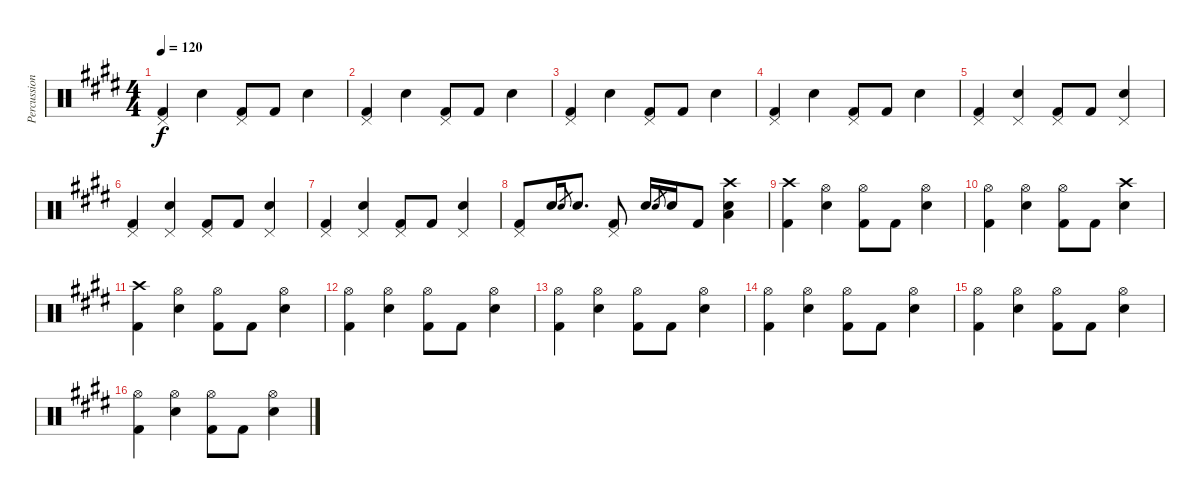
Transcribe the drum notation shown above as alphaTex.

\track ("Percussion" "Percussion") {instrument percussion}
\staff {score}
\articulation defaults
\ts (4 4)
\tempo 120
\clef neutral
\ks e
("Pedal Hi-Hat (hit)" "Kick (hit) 2").4{dy f} "Snare (hit) 2".4 ("Pedal Hi-Hat (hit)" "Kick (hit) 2").8 "Kick (hit) 2".8 "Snare (hit) 2".4 |
("Pedal Hi-Hat (hit)" "Kick (hit) 2").4 "Snare (hit) 2".4 ("Pedal Hi-Hat (hit)" "Kick (hit) 2").8 "Kick (hit) 2".8 "Snare (hit) 2".4 |
("Pedal Hi-Hat (hit)" "Kick (hit) 2").4 "Snare (hit) 2".4 ("Pedal Hi-Hat (hit)" "Kick (hit) 2").8 "Kick (hit) 2".8 "Snare (hit) 2".4 |
\ks c#minor
("Pedal Hi-Hat (hit)" "Kick (hit) 2").4 "Snare (hit) 2".4 ("Pedal Hi-Hat (hit)" "Kick (hit) 2").8 "Kick (hit) 2".8 "Snare (hit) 2".4 |
("Pedal Hi-Hat (hit)" "Kick (hit) 2").4 ("Pedal Hi-Hat (hit)" "Snare (hit) 2").4 ("Pedal Hi-Hat (hit)" "Kick (hit) 2").8 "Kick (hit) 2".8 ("Pedal Hi-Hat (hit)" "Snare (hit) 2").4 |
\ks e
("Pedal Hi-Hat (hit)" "Kick (hit) 2").4 ("Pedal Hi-Hat (hit)" "Snare (hit) 2").4 ("Pedal Hi-Hat (hit)" "Kick (hit) 2").8 "Kick (hit) 2".8 ("Pedal Hi-Hat (hit)" "Snare (hit) 2").4 |
\ks c#minor
("Pedal Hi-Hat (hit)" "Kick (hit) 2").4 ("Pedal Hi-Hat (hit)" "Snare (hit) 2").4 ("Pedal Hi-Hat (hit)" "Kick (hit) 2").8 "Kick (hit) 2".8 ("Pedal Hi-Hat (hit)" "Snare (hit) 2").4 |
("Pedal Hi-Hat (hit)" "Kick (hit) 2").8 "Snare (hit) 2".16 "Snare (hit) 2".8{gr} "Snare (hit) 2".8{d} ("Pedal Hi-Hat (hit)" "Kick (hit) 2").8 "Snare (hit) 2".16 "Snare (hit) 2".8{gr} "Snare (hit) 2".16 "Kick (hit) 2".8 ("Crash high (hit)" "Low Floor Tom (hit)" "Snare (hit) 2").4 |
("Crash high (hit)" "Kick (hit) 2").4 ("Hi-Hat (open)" "Snare (hit) 2").4 ("Hi-Hat (open)" "Kick (hit) 2").8 "Kick (hit) 2".8 ("Hi-Hat (open)" "Snare (hit) 2").4 |
\ks e
("Hi-Hat (open)" "Kick (hit) 2").4 ("Hi-Hat (open)" "Snare (hit) 2").4 ("Hi-Hat (open)" "Kick (hit) 2").8 "Kick (hit) 2".8 ("Crash high (hit)" "Snare (hit) 2").4 |
\ks c#minor
("Crash high (hit)" "Kick (hit) 2").4 ("Hi-Hat (open)" "Snare (hit) 2").4 ("Hi-Hat (open)" "Kick (hit) 2").8 "Kick (hit) 2".8 ("Hi-Hat (open)" "Snare (hit) 2").4 |
\ks e
("Hi-Hat (open)" "Kick (hit) 2").4 ("Hi-Hat (open)" "Snare (hit) 2").4 ("Hi-Hat (open)" "Kick (hit) 2").8 "Kick (hit) 2".8 ("Hi-Hat (open)" "Snare (hit) 2").4 |
\ks c#minor
("Hi-Hat (open)" "Kick (hit) 2").4 ("Hi-Hat (open)" "Snare (hit) 2").4 ("Hi-Hat (open)" "Kick (hit) 2").8 "Kick (hit) 2".8 ("Hi-Hat (open)" "Snare (hit) 2").4 |
\ks e
("Hi-Hat (open)" "Kick (hit) 2").4 ("Hi-Hat (open)" "Snare (hit) 2").4 ("Hi-Hat (open)" "Kick (hit) 2").8 "Kick (hit) 2".8 ("Hi-Hat (open)" "Snare (hit) 2").4 |
\ks c#minor
("Hi-Hat (open)" "Kick (hit) 2").4 ("Hi-Hat (open)" "Snare (hit) 2").4 ("Hi-Hat (open)" "Kick (hit) 2").8 "Kick (hit) 2".8 ("Hi-Hat (open)" "Snare (hit) 2").4 |
\ks e
("Hi-Hat (open)" "Kick (hit) 2").4 ("Hi-Hat (open)" "Snare (hit) 2").4 ("Hi-Hat (open)" "Kick (hit) 2").8 "Kick (hit) 2".8 ("Hi-Hat (open)" "Snare (hit) 2").4
